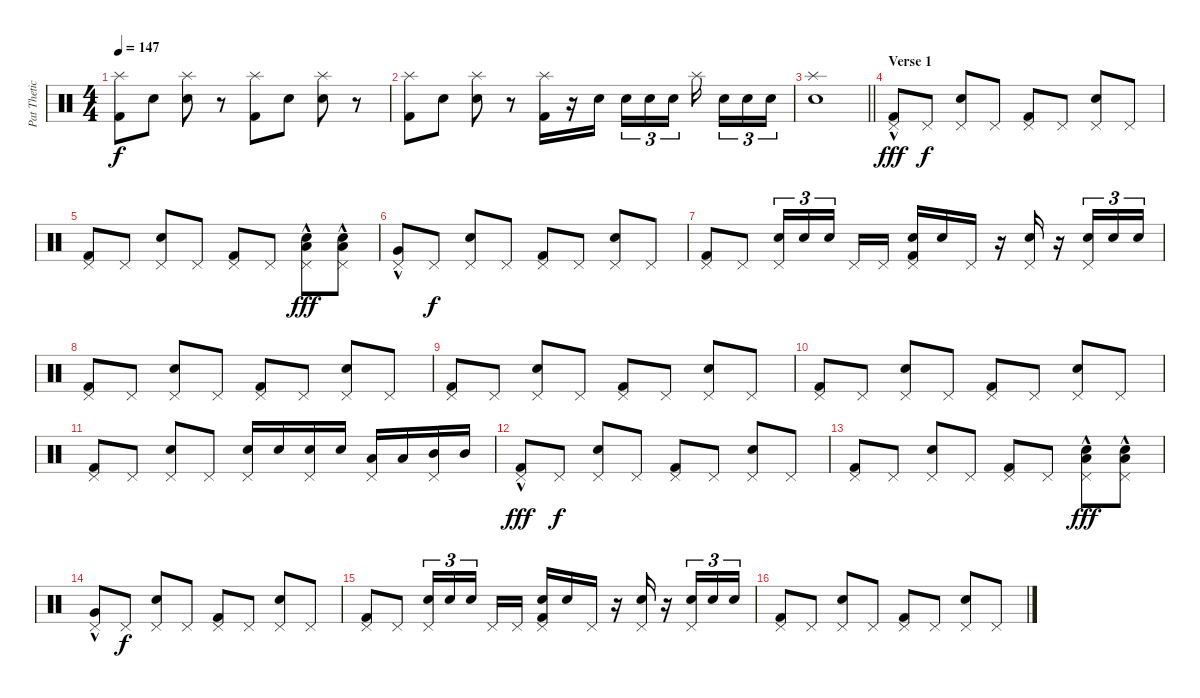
\track ("Pat Thetic Drums" "Pat Thetic") {instrument percussion}
\staff {score}
\articulation defaults
\ts (4 4)
\tempo 147
\clef neutral
\ks c
("Splash (hit)" "Kick (hit) 2").8{dy f} "Snare (hit) 2".8 ("Splash (hit)" "Snare (hit) 2").8 r.8 ("Splash (hit)" "Kick (hit) 2").8 "Snare (hit) 2".8 ("Splash (hit)" "Snare (hit) 2").8 r.8 |
("Splash (hit)" "Kick (hit) 2").8 "Snare (hit) 2".8 ("Splash (hit)" "Snare (hit) 2").8 r.8 ("Splash (hit)" "Kick (hit) 2").16 r.16 "Snare (hit) 2".16{beam splitsecondary} "Snare (hit) 2".16{tu (3 2)} "Snare (hit) 2".16{tu (3 2)} "Snare (hit) 2".16{tu (3 2) beam splitsecondary} "Splash (hit)".16{beam splitsecondary} "Snare (hit) 2".16{tu (3 2)} "Snare (hit) 2".16{tu (3 2)} "Snare (hit) 2".16{tu (3 2)} |
\barLineRight lightlight
("Splash (hit)" "Snare (hit) 2").1 |
\section ("" "Verse 1")
("Pedal Hi-Hat (hit)" "Kick (hit) 2"{hac}).8{dy fff} "Pedal Hi-Hat (hit)".8{dy f} ("Pedal Hi-Hat (hit)" "Snare (hit) 2").8 "Pedal Hi-Hat (hit)".8 ("Pedal Hi-Hat (hit)" "Kick (hit) 2").8 "Pedal Hi-Hat (hit)".8 ("Pedal Hi-Hat (hit)" "Snare (hit) 2").8 "Pedal Hi-Hat (hit)".8 |
("Pedal Hi-Hat (hit)" "Kick (hit) 2").8 "Pedal Hi-Hat (hit)".8 ("Pedal Hi-Hat (hit)" "Snare (hit) 2").8 "Pedal Hi-Hat (hit)".8 ("Pedal Hi-Hat (hit)" "Kick (hit) 2").8 "Pedal Hi-Hat (hit)".8 ("Pedal Hi-Hat (hit)" "Snare (hit) 2" "Low Floor Tom (hit)"{hac}).8{dy fff} ("Pedal Hi-Hat (hit)" "Snare (hit) 2" "Low Floor Tom (hit)"{hac}).8 |
("Pedal Hi-Hat (hit)" "Very Low Tom (hit)"{hac}).8 "Pedal Hi-Hat (hit)".8{dy f} ("Pedal Hi-Hat (hit)" "Snare (hit) 2").8 "Pedal Hi-Hat (hit)".8 ("Pedal Hi-Hat (hit)" "Kick (hit) 2").8 "Pedal Hi-Hat (hit)".8 ("Pedal Hi-Hat (hit)" "Snare (hit) 2").8 "Pedal Hi-Hat (hit)".8 |
("Pedal Hi-Hat (hit)" "Kick (hit) 2").8 "Pedal Hi-Hat (hit)".8 ("Pedal Hi-Hat (hit)" "Snare (hit) 2").16{tu (3 2)} "Snare (hit) 2".16{tu (3 2)} "Snare (hit) 2".16{tu (3 2) beam splitsecondary} "Pedal Hi-Hat (hit)".16 "Pedal Hi-Hat (hit)".16 ("Pedal Hi-Hat (hit)" "Kick (hit) 2" "Snare (hit) 2").16 "Snare (hit) 2".16 "Pedal Hi-Hat (hit)".16 r.16 ("Pedal Hi-Hat (hit)" "Snare (hit) 2").16 r.16 ("Pedal Hi-Hat (hit)" "Snare (hit) 2").16{tu (3 2)} "Snare (hit) 2".16{tu (3 2)} "Snare (hit) 2".16{tu (3 2)} |
("Pedal Hi-Hat (hit)" "Kick (hit) 2").8 "Pedal Hi-Hat (hit)".8 ("Pedal Hi-Hat (hit)" "Snare (hit) 2").8 "Pedal Hi-Hat (hit)".8 ("Pedal Hi-Hat (hit)" "Kick (hit) 2").8 "Pedal Hi-Hat (hit)".8 ("Pedal Hi-Hat (hit)" "Snare (hit) 2").8 "Pedal Hi-Hat (hit)".8 |
("Pedal Hi-Hat (hit)" "Kick (hit) 2").8 "Pedal Hi-Hat (hit)".8 ("Pedal Hi-Hat (hit)" "Snare (hit) 2").8 "Pedal Hi-Hat (hit)".8 ("Pedal Hi-Hat (hit)" "Kick (hit) 2").8 "Pedal Hi-Hat (hit)".8 ("Pedal Hi-Hat (hit)" "Snare (hit) 2").8 "Pedal Hi-Hat (hit)".8 |
("Pedal Hi-Hat (hit)" "Kick (hit) 2").8 "Pedal Hi-Hat (hit)".8 ("Pedal Hi-Hat (hit)" "Snare (hit) 2").8 "Pedal Hi-Hat (hit)".8 ("Pedal Hi-Hat (hit)" "Kick (hit) 2").8 "Pedal Hi-Hat (hit)".8 ("Pedal Hi-Hat (hit)" "Snare (hit) 2").8 "Pedal Hi-Hat (hit)".8 |
("Pedal Hi-Hat (hit)" "Kick (hit) 2").8 "Pedal Hi-Hat (hit)".8 ("Pedal Hi-Hat (hit)" "Snare (hit) 2").8 "Pedal Hi-Hat (hit)".8 ("Pedal Hi-Hat (hit)" "Snare (hit) 2").16 "Snare (hit) 2".16 ("Pedal Hi-Hat (hit)" "Snare (hit) 2").16 "Snare (hit) 2".16 ("Pedal Hi-Hat (hit)" "Low Tom (hit)").16 "Low Tom (hit)".16 ("Pedal Hi-Hat (hit)" "Mid Tom (hit)").16 "Mid Tom (hit)".16 |
("Pedal Hi-Hat (hit)" "Kick (hit) 2"{hac}).8{dy fff} "Pedal Hi-Hat (hit)".8{dy f} ("Pedal Hi-Hat (hit)" "Snare (hit) 2").8 "Pedal Hi-Hat (hit)".8 ("Pedal Hi-Hat (hit)" "Kick (hit) 2").8 "Pedal Hi-Hat (hit)".8 ("Pedal Hi-Hat (hit)" "Snare (hit) 2").8 "Pedal Hi-Hat (hit)".8 |
("Pedal Hi-Hat (hit)" "Kick (hit) 2").8 "Pedal Hi-Hat (hit)".8 ("Pedal Hi-Hat (hit)" "Snare (hit) 2").8 "Pedal Hi-Hat (hit)".8 ("Pedal Hi-Hat (hit)" "Kick (hit) 2").8 "Pedal Hi-Hat (hit)".8 ("Pedal Hi-Hat (hit)" "Snare (hit) 2" "Low Floor Tom (hit)"{hac}).8{dy fff} ("Pedal Hi-Hat (hit)" "Snare (hit) 2" "Low Floor Tom (hit)"{hac}).8 |
("Pedal Hi-Hat (hit)" "Very Low Tom (hit)"{hac}).8 "Pedal Hi-Hat (hit)".8{dy f} ("Pedal Hi-Hat (hit)" "Snare (hit) 2").8 "Pedal Hi-Hat (hit)".8 ("Pedal Hi-Hat (hit)" "Kick (hit) 2").8 "Pedal Hi-Hat (hit)".8 ("Pedal Hi-Hat (hit)" "Snare (hit) 2").8 "Pedal Hi-Hat (hit)".8 |
("Pedal Hi-Hat (hit)" "Kick (hit) 2").8 "Pedal Hi-Hat (hit)".8 ("Pedal Hi-Hat (hit)" "Snare (hit) 2").16{tu (3 2)} "Snare (hit) 2".16{tu (3 2)} "Snare (hit) 2".16{tu (3 2) beam splitsecondary} "Pedal Hi-Hat (hit)".16 "Pedal Hi-Hat (hit)".16 ("Pedal Hi-Hat (hit)" "Kick (hit) 2" "Snare (hit) 2").16 "Snare (hit) 2".16 "Pedal Hi-Hat (hit)".16 r.16 ("Pedal Hi-Hat (hit)" "Snare (hit) 2").16 r.16 ("Pedal Hi-Hat (hit)" "Snare (hit) 2").16{tu (3 2)} "Snare (hit) 2".16{tu (3 2)} "Snare (hit) 2".16{tu (3 2)} |
("Pedal Hi-Hat (hit)" "Kick (hit) 2").8 "Pedal Hi-Hat (hit)".8 ("Pedal Hi-Hat (hit)" "Snare (hit) 2").8 "Pedal Hi-Hat (hit)".8 ("Pedal Hi-Hat (hit)" "Kick (hit) 2").8 "Pedal Hi-Hat (hit)".8 ("Pedal Hi-Hat (hit)" "Snare (hit) 2").8 "Pedal Hi-Hat (hit)".8
